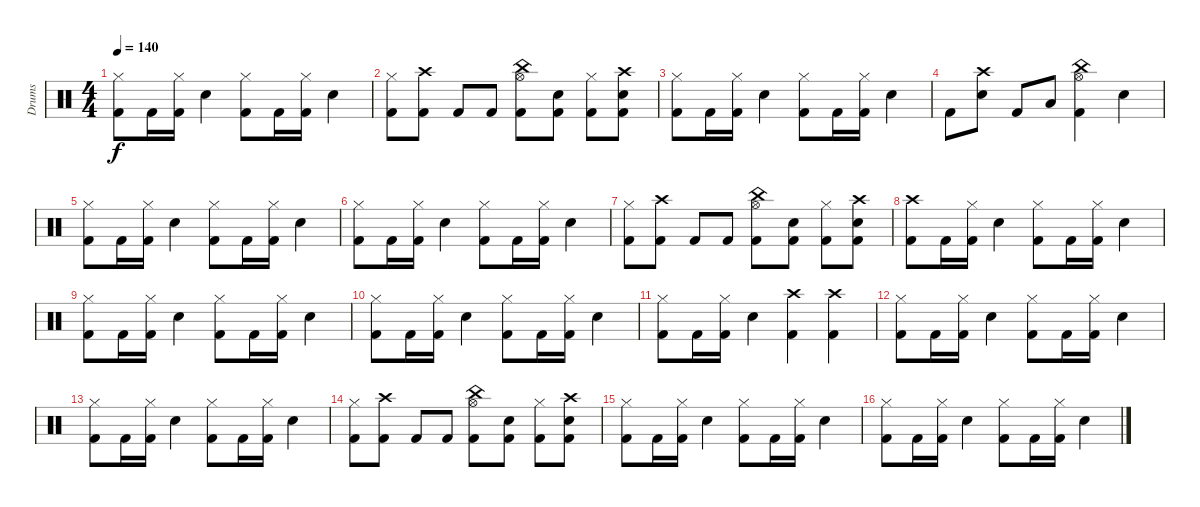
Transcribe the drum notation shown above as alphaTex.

\track ("Drums" "Drums") {instrument percussion}
\staff {score}
\articulation defaults
\ts (4 4)
\tempo 140
\clef neutral
\ks c
("Hi-Hat (closed)" "Kick (hit) 2").8{dy f} "Kick (hit) 2".16 ("Hi-Hat (closed)" "Kick (hit) 2").16 "Electric Snare (hit)".4 ("Hi-Hat (closed)" "Kick (hit) 2").8 "Kick (hit) 2".16 ("Hi-Hat (closed)" "Kick (hit) 2").16 "Electric Snare (hit)".4 |
("Hi-Hat (closed)" "Kick (hit) 2").8 ("Crash high (hit)" "Kick (hit) 2").8 "Kick (hit) 2".8 "Kick (hit) 2".8 ("China (hit)" "Hi-Hat (open)" "Kick (hit) 2").8 ("Electric Snare (hit)" "Kick (hit) 2").8 ("Hi-Hat (closed)" "Kick (hit) 2").8 ("Crash high (hit)" "Electric Snare (hit)" "Kick (hit) 2").8 |
("Hi-Hat (closed)" "Kick (hit) 2").8 "Kick (hit) 2".16 ("Hi-Hat (closed)" "Kick (hit) 2").16 "Electric Snare (hit)".4 ("Hi-Hat (closed)" "Kick (hit) 2").8 "Kick (hit) 2".16 ("Hi-Hat (closed)" "Kick (hit) 2").16 "Electric Snare (hit)".4 |
"Kick (hit) 2".8 ("Crash high (hit)" "Electric Snare (hit)").8 "Kick (hit) 2".8 "Low Floor Tom (hit)".8 ("China (hit)" "Hi-Hat (open)" "Kick (hit) 2").4 "Electric Snare (hit)".4 |
("Hi-Hat (closed)" "Kick (hit) 2").8 "Kick (hit) 2".16 ("Hi-Hat (closed)" "Kick (hit) 2").16 "Electric Snare (hit)".4 ("Hi-Hat (closed)" "Kick (hit) 2").8 "Kick (hit) 2".16 ("Hi-Hat (closed)" "Kick (hit) 2").16 "Electric Snare (hit)".4 |
("Hi-Hat (closed)" "Kick (hit) 2").8 "Kick (hit) 2".16 ("Hi-Hat (closed)" "Kick (hit) 2").16 "Electric Snare (hit)".4 ("Hi-Hat (closed)" "Kick (hit) 2").8 "Kick (hit) 2".16 ("Hi-Hat (closed)" "Kick (hit) 2").16 "Electric Snare (hit)".4 |
("Hi-Hat (closed)" "Kick (hit) 2").8 ("Crash high (hit)" "Kick (hit) 2").8 "Kick (hit) 2".8 "Kick (hit) 2".8 ("China (hit)" "Hi-Hat (open)" "Kick (hit) 2").8 ("Electric Snare (hit)" "Kick (hit) 2").8 ("Hi-Hat (closed)" "Kick (hit) 2").8 ("Crash high (hit)" "Electric Snare (hit)" "Kick (hit) 2").8 |
("Crash high (hit)" "Kick (hit) 2").8 "Kick (hit) 2".16 ("Hi-Hat (closed)" "Kick (hit) 2").16 "Electric Snare (hit)".4 ("Hi-Hat (closed)" "Kick (hit) 2").8 "Kick (hit) 2".16 ("Hi-Hat (closed)" "Kick (hit) 2").16 "Electric Snare (hit)".4 |
("Hi-Hat (closed)" "Kick (hit) 2").8 "Kick (hit) 2".16 ("Hi-Hat (closed)" "Kick (hit) 2").16 "Electric Snare (hit)".4 ("Hi-Hat (closed)" "Kick (hit) 2").8 "Kick (hit) 2".16 ("Hi-Hat (closed)" "Kick (hit) 2").16 "Electric Snare (hit)".4 |
("Hi-Hat (closed)" "Kick (hit) 2").8 "Kick (hit) 2".16 ("Hi-Hat (closed)" "Kick (hit) 2").16 "Electric Snare (hit)".4 ("Hi-Hat (closed)" "Kick (hit) 2").8 "Kick (hit) 2".16 ("Hi-Hat (closed)" "Kick (hit) 2").16 "Electric Snare (hit)".4 |
("Hi-Hat (closed)" "Kick (hit) 2").8 "Kick (hit) 2".16 ("Hi-Hat (closed)" "Kick (hit) 2").16 "Electric Snare (hit)".4 ("Crash high (hit)" "Kick (hit) 2").4 ("Crash high (hit)" "Kick (hit) 2").4 |
("Hi-Hat (closed)" "Kick (hit) 2").8 "Kick (hit) 2".16 ("Hi-Hat (closed)" "Kick (hit) 2").16 "Electric Snare (hit)".4 ("Hi-Hat (closed)" "Kick (hit) 2").8 "Kick (hit) 2".16 ("Hi-Hat (closed)" "Kick (hit) 2").16 "Electric Snare (hit)".4 |
("Hi-Hat (closed)" "Kick (hit) 2").8 "Kick (hit) 2".16 ("Hi-Hat (closed)" "Kick (hit) 2").16 "Electric Snare (hit)".4 ("Hi-Hat (closed)" "Kick (hit) 2").8 "Kick (hit) 2".16 ("Hi-Hat (closed)" "Kick (hit) 2").16 "Electric Snare (hit)".4 |
("Hi-Hat (closed)" "Kick (hit) 2").8 ("Crash high (hit)" "Kick (hit) 2").8 "Kick (hit) 2".8 "Kick (hit) 2".8 ("China (hit)" "Hi-Hat (open)" "Kick (hit) 2").8 ("Electric Snare (hit)" "Kick (hit) 2").8 ("Hi-Hat (closed)" "Kick (hit) 2").8 ("Crash high (hit)" "Electric Snare (hit)" "Kick (hit) 2").8 |
("Hi-Hat (closed)" "Kick (hit) 2").8 "Kick (hit) 2".16 ("Hi-Hat (closed)" "Kick (hit) 2").16 "Electric Snare (hit)".4 ("Hi-Hat (closed)" "Kick (hit) 2").8 "Kick (hit) 2".16 ("Hi-Hat (closed)" "Kick (hit) 2").16 "Electric Snare (hit)".4 |
("Hi-Hat (closed)" "Kick (hit) 2").8 "Kick (hit) 2".16 ("Hi-Hat (closed)" "Kick (hit) 2").16 "Electric Snare (hit)".4 ("Hi-Hat (closed)" "Kick (hit) 2").8 "Kick (hit) 2".16 ("Hi-Hat (closed)" "Kick (hit) 2").16 "Electric Snare (hit)".4
